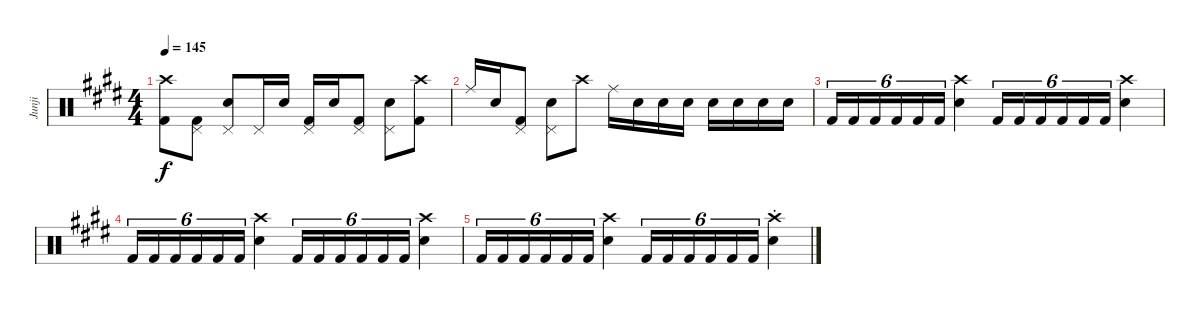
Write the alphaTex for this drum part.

\track ("Junji" "Junji") {instrument percussion}
\staff {score}
\articulation defaults
\ts (4 4)
\tempo 145
\clef neutral
\ks c#minor
("Crash high (hit)" "Kick (hit) 2").8{dy f} ("Pedal Hi-Hat (hit)" "Kick (hit) 2").8 ("Pedal Hi-Hat (hit)" "Snare (hit) 2").8 "Pedal Hi-Hat (hit)".16 "Snare (hit) 2".16 ("Pedal Hi-Hat (hit)" "Kick (hit) 2").16 "Snare (hit) 2".16 ("Pedal Hi-Hat (hit)" "Kick (hit) 2").8 ("Pedal Hi-Hat (hit)" "Snare (hit) 2").8 ("Crash high (hit)" "Kick (hit) 2").8 |
"Ride (middle)".16 "Snare (hit) 2".16 ("Pedal Hi-Hat (hit)" "Kick (hit) 2").8 ("Pedal Hi-Hat (hit)" "Snare (hit) 2").8 "Crash high (hit)".8 "Ride (middle)".16 "Snare (hit) 2".16 "Snare (hit) 2".16 "Snare (hit) 2".16 "Snare (hit) 2".16 "Snare (hit) 2".16 "Snare (hit) 2".16 "Snare (hit) 2".16 |
"Kick (hit) 2".16{tu (6 4)} "Kick (hit) 2".16{tu (6 4)} "Kick (hit) 2".16{tu (6 4)} "Kick (hit) 2".16{tu (6 4)} "Kick (hit) 2".16{tu (6 4)} "Kick (hit) 2".16{tu (6 4)} ("Crash high (hit)" "Snare (hit) 2").4 "Kick (hit) 2".16{tu (6 4)} "Kick (hit) 2".16{tu (6 4)} "Kick (hit) 2".16{tu (6 4)} "Kick (hit) 2".16{tu (6 4)} "Kick (hit) 2".16{tu (6 4)} "Kick (hit) 2".16{tu (6 4)} ("Crash high (hit)" "Snare (hit) 2").4 |
"Kick (hit) 2".16{tu (6 4)} "Kick (hit) 2".16{tu (6 4)} "Kick (hit) 2".16{tu (6 4)} "Kick (hit) 2".16{tu (6 4)} "Kick (hit) 2".16{tu (6 4)} "Kick (hit) 2".16{tu (6 4)} ("Crash high (hit)" "Snare (hit) 2").4 "Kick (hit) 2".16{tu (6 4)} "Kick (hit) 2".16{tu (6 4)} "Kick (hit) 2".16{tu (6 4)} "Kick (hit) 2".16{tu (6 4)} "Kick (hit) 2".16{tu (6 4)} "Kick (hit) 2".16{tu (6 4)} ("Crash high (hit)" "Snare (hit) 2").4 |
"Kick (hit) 2".16{tu (6 4)} "Kick (hit) 2".16{tu (6 4)} "Kick (hit) 2".16{tu (6 4)} "Kick (hit) 2".16{tu (6 4)} "Kick (hit) 2".16{tu (6 4)} "Kick (hit) 2".16{tu (6 4)} ("Crash high (hit)" "Snare (hit) 2").4 "Kick (hit) 2".16{tu (6 4)} "Kick (hit) 2".16{tu (6 4)} "Kick (hit) 2".16{tu (6 4)} "Kick (hit) 2".16{tu (6 4)} "Kick (hit) 2".16{tu (6 4)} "Kick (hit) 2".16{tu (6 4)} ("Crash high (hit)"{st} "Snare (hit) 2").4
